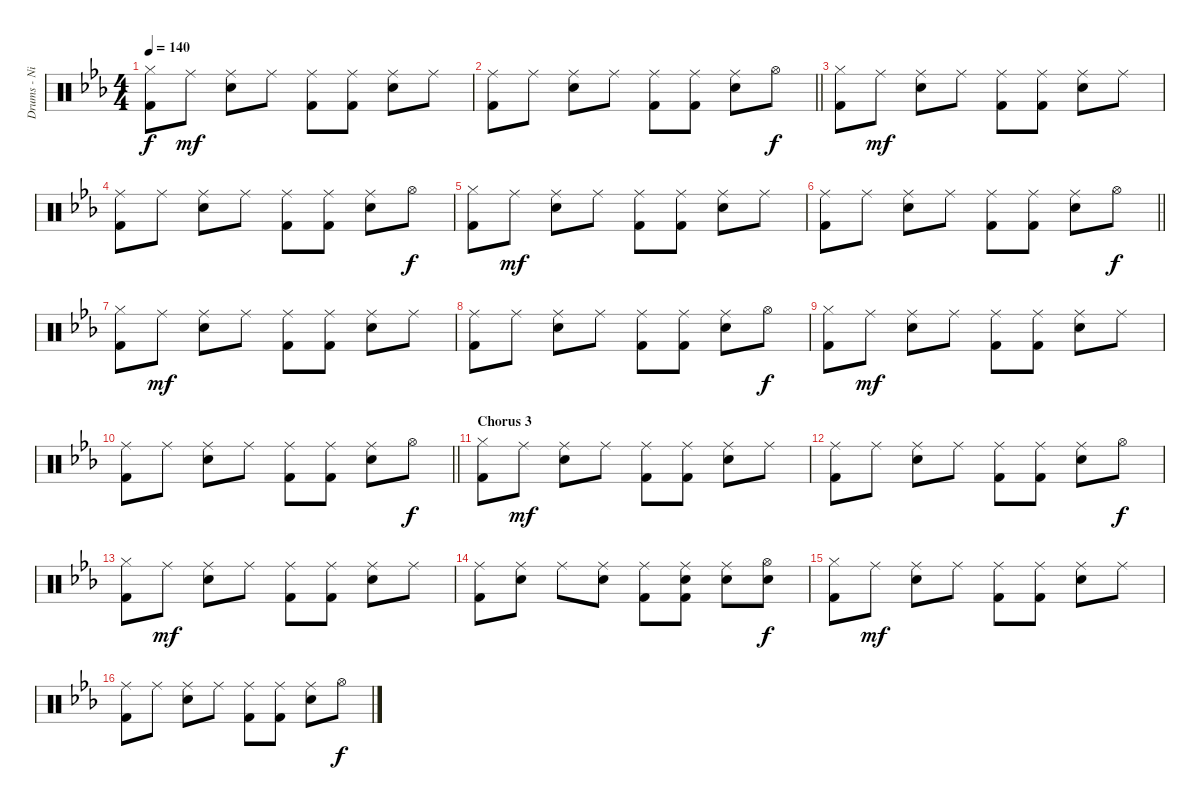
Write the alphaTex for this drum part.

\track ("Drums - Nigel Olsen" "Drums - Ni") {instrument percussion}
\staff {score}
\articulation defaults
\ts (4 4)
\tempo 140
\clef neutral
\ks cminor
("Hi-Hat (closed)" "Kick (hit) 2").8{dy f} "Ride (middle)".8{dy mf} ("Ride (middle)" "Snare (hit) 2").8 "Ride (middle)".8 ("Ride (middle)" "Kick (hit) 2").8 ("Ride (middle)" "Kick (hit) 2").8 ("Ride (middle)" "Snare (hit) 2").8 "Ride (middle)".8 |
\barLineRight lightlight
("Ride (middle)" "Kick (hit) 2").8 "Ride (middle)".8 ("Ride (middle)" "Snare (hit) 2").8 "Ride (middle)".8 ("Ride (middle)" "Kick (hit) 2").8 ("Ride (middle)" "Kick (hit) 2").8 ("Ride (middle)" "Snare (hit) 2").8 "Hi-Hat (open)".8{dy f} |
("Hi-Hat (closed)" "Kick (hit) 2").8 "Ride (middle)".8{dy mf} ("Ride (middle)" "Snare (hit) 2").8 "Ride (middle)".8 ("Ride (middle)" "Kick (hit) 2").8 ("Ride (middle)" "Kick (hit) 2").8 ("Ride (middle)" "Snare (hit) 2").8 "Ride (middle)".8 |
("Ride (middle)" "Kick (hit) 2").8 "Ride (middle)".8 ("Ride (middle)" "Snare (hit) 2").8 "Ride (middle)".8 ("Ride (middle)" "Kick (hit) 2").8 ("Ride (middle)" "Kick (hit) 2").8 ("Ride (middle)" "Snare (hit) 2").8 "Hi-Hat (open)".8{dy f} |
("Hi-Hat (closed)" "Kick (hit) 2").8 "Ride (middle)".8{dy mf} ("Ride (middle)" "Snare (hit) 2").8 "Ride (middle)".8 ("Ride (middle)" "Kick (hit) 2").8 ("Ride (middle)" "Kick (hit) 2").8 ("Ride (middle)" "Snare (hit) 2").8 "Ride (middle)".8 |
\barLineRight lightlight
("Ride (middle)" "Kick (hit) 2").8 "Ride (middle)".8 ("Ride (middle)" "Snare (hit) 2").8 "Ride (middle)".8 ("Ride (middle)" "Kick (hit) 2").8 ("Ride (middle)" "Kick (hit) 2").8 ("Ride (middle)" "Snare (hit) 2").8 "Hi-Hat (open)".8{dy f} |
("Hi-Hat (closed)" "Kick (hit) 2").8 "Ride (middle)".8{dy mf} ("Ride (middle)" "Snare (hit) 2").8 "Ride (middle)".8 ("Ride (middle)" "Kick (hit) 2").8 ("Ride (middle)" "Kick (hit) 2").8 ("Ride (middle)" "Snare (hit) 2").8 "Ride (middle)".8 |
("Ride (middle)" "Kick (hit) 2").8 "Ride (middle)".8 ("Ride (middle)" "Snare (hit) 2").8 "Ride (middle)".8 ("Ride (middle)" "Kick (hit) 2").8 ("Ride (middle)" "Kick (hit) 2").8 ("Ride (middle)" "Snare (hit) 2").8 "Hi-Hat (open)".8{dy f} |
("Hi-Hat (closed)" "Kick (hit) 2").8 "Ride (middle)".8{dy mf} ("Ride (middle)" "Snare (hit) 2").8 "Ride (middle)".8 ("Ride (middle)" "Kick (hit) 2").8 ("Ride (middle)" "Kick (hit) 2").8 ("Ride (middle)" "Snare (hit) 2").8 "Ride (middle)".8 |
\barLineRight lightlight
("Ride (middle)" "Kick (hit) 2").8 "Ride (middle)".8 ("Ride (middle)" "Snare (hit) 2").8 "Ride (middle)".8 ("Ride (middle)" "Kick (hit) 2").8 ("Ride (middle)" "Kick (hit) 2").8 ("Ride (middle)" "Snare (hit) 2").8 "Hi-Hat (open)".8{dy f} |
\section ("" "Chorus 3")
("Hi-Hat (closed)" "Kick (hit) 2").8 "Ride (middle)".8{dy mf} ("Ride (middle)" "Snare (hit) 2").8 "Ride (middle)".8 ("Ride (middle)" "Kick (hit) 2").8 ("Ride (middle)" "Kick (hit) 2").8 ("Ride (middle)" "Snare (hit) 2").8 "Ride (middle)".8 |
("Ride (middle)" "Kick (hit) 2").8 "Ride (middle)".8 ("Ride (middle)" "Snare (hit) 2").8 "Ride (middle)".8 ("Ride (middle)" "Kick (hit) 2").8 ("Ride (middle)" "Kick (hit) 2").8 ("Ride (middle)" "Snare (hit) 2").8 "Hi-Hat (open)".8{dy f} |
("Hi-Hat (closed)" "Kick (hit) 2").8 "Ride (middle)".8{dy mf} ("Ride (middle)" "Snare (hit) 2").8 "Ride (middle)".8 ("Ride (middle)" "Kick (hit) 2").8 ("Ride (middle)" "Kick (hit) 2").8 ("Ride (middle)" "Snare (hit) 2").8 "Ride (middle)".8 |
("Ride (middle)" "Kick (hit) 2").8 ("Ride (middle)" "Snare (hit) 2").8 "Ride (middle)".8 ("Ride (middle)" "Snare (hit) 2").8 ("Ride (middle)" "Kick (hit) 2").8 ("Ride (middle)" "Snare (hit) 2" "Kick (hit) 2").8 ("Ride (middle)" "Snare (hit) 2").8 ("Hi-Hat (open)" "Snare (hit) 2").8{dy f} |
("Hi-Hat (closed)" "Kick (hit) 2").8 "Ride (middle)".8{dy mf} ("Ride (middle)" "Snare (hit) 2").8 "Ride (middle)".8 ("Ride (middle)" "Kick (hit) 2").8 ("Ride (middle)" "Kick (hit) 2").8 ("Ride (middle)" "Snare (hit) 2").8 "Ride (middle)".8 |
("Ride (middle)" "Kick (hit) 2").8 "Ride (middle)".8 ("Ride (middle)" "Snare (hit) 2").8 "Ride (middle)".8 ("Ride (middle)" "Kick (hit) 2").8 ("Ride (middle)" "Kick (hit) 2").8 ("Ride (middle)" "Snare (hit) 2").8 "Hi-Hat (open)".8{dy f}
